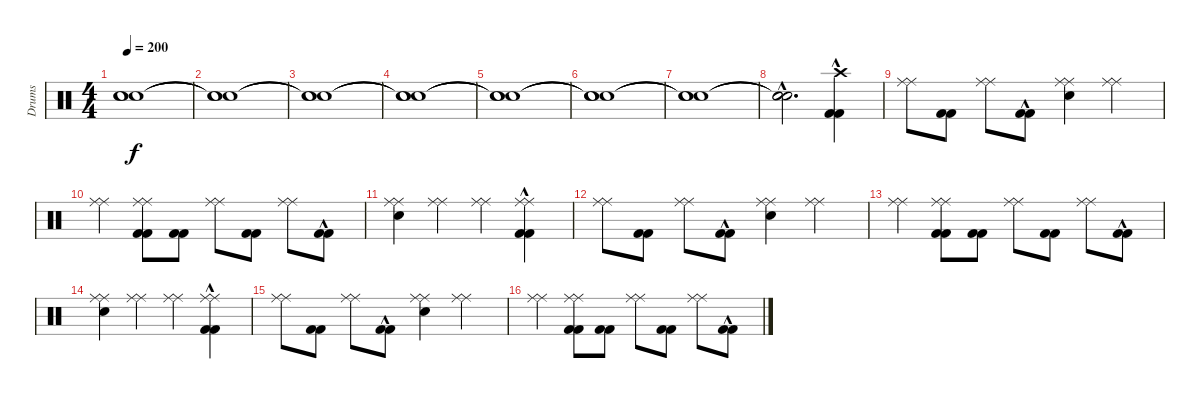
\track ("Drums" "Drums") {instrument percussion}
\staff {score}
\articulation defaults
\ts (4 4)
\tempo 200
\clef neutral
\ks c
("Snare (hit)"{t} "Snare (hit)"{t} "Snare (hit)"{t}).1{dy f} |
("Snare (hit)"{t} "Snare (hit)"{t} "Snare (hit)"{t}).1 |
("Snare (hit)"{t} "Snare (hit)"{t} "Snare (hit)"{t}).1 |
("Snare (hit)"{t} "Snare (hit)"{t} "Snare (hit)"{t}).1 |
("Snare (hit)"{t} "Snare (hit)"{t} "Snare (hit)"{t}).1 |
("Snare (hit)"{t} "Snare (hit)"{t} "Snare (hit)"{t}).1 |
("Snare (hit)"{t} "Snare (hit)"{t} "Snare (hit)"{t}).1 |
("Snare (hit)"{hac t} "Snare (hit)"{hac t} "Snare (hit)"{hac t}).2{d} ("Kick (hit) 2"{hac} "Kick (hit) 2"{hac} "Crash high (hit)").4 |
("Ride (middle)" "Ride (middle)").8 ("Kick (hit) 2" "Kick (hit) 2").8 ("Ride (middle)" "Ride (middle)").8 ("Kick (hit) 2"{hac} "Kick (hit) 2"{hac}).8 ("Electric Snare (hit)" "Ride (middle)" "Ride (middle)").4 ("Ride (middle)" "Ride (middle)").4 |
("Ride (middle)" "Ride (middle)").4 ("Kick (hit) 2" "Kick (hit) 2" "Ride (middle)" "Ride (middle)").8 ("Kick (hit) 2" "Kick (hit) 2").8 ("Ride (middle)" "Ride (middle)").8 ("Kick (hit) 2" "Kick (hit) 2").8 ("Ride (middle)" "Ride (middle)").8 ("Kick (hit) 2"{hac} "Kick (hit) 2"{hac}).8 |
("Electric Snare (hit)" "Ride (middle)" "Ride (middle)").4 ("Ride (middle)" "Ride (middle)").4 ("Ride (middle)" "Ride (middle)").4 ("Kick (hit) 2"{hac} "Kick (hit) 2"{hac} "Ride (middle)" "Ride (middle)").4 |
("Ride (middle)" "Ride (middle)").8 ("Kick (hit) 2" "Kick (hit) 2").8 ("Ride (middle)" "Ride (middle)").8 ("Kick (hit) 2"{hac} "Kick (hit) 2"{hac}).8 ("Electric Snare (hit)" "Ride (middle)" "Ride (middle)").4 ("Ride (middle)" "Ride (middle)").4 |
("Ride (middle)" "Ride (middle)").4 ("Kick (hit) 2" "Kick (hit) 2" "Ride (middle)" "Ride (middle)").8 ("Kick (hit) 2" "Kick (hit) 2").8 ("Ride (middle)" "Ride (middle)").8 ("Kick (hit) 2" "Kick (hit) 2").8 ("Ride (middle)" "Ride (middle)").8 ("Kick (hit) 2"{hac} "Kick (hit) 2"{hac}).8 |
("Electric Snare (hit)" "Ride (middle)" "Ride (middle)").4 ("Ride (middle)" "Ride (middle)").4 ("Ride (middle)" "Ride (middle)").4 ("Kick (hit) 2"{hac} "Kick (hit) 2"{hac} "Ride (middle)" "Ride (middle)").4 |
("Ride (middle)" "Ride (middle)").8 ("Kick (hit) 2" "Kick (hit) 2").8 ("Ride (middle)" "Ride (middle)").8 ("Kick (hit) 2"{hac} "Kick (hit) 2"{hac}).8 ("Electric Snare (hit)" "Ride (middle)" "Ride (middle)").4 ("Ride (middle)" "Ride (middle)").4 |
("Ride (middle)" "Ride (middle)").4 ("Kick (hit) 2" "Kick (hit) 2" "Ride (middle)" "Ride (middle)").8 ("Kick (hit) 2" "Kick (hit) 2").8 ("Ride (middle)" "Ride (middle)").8 ("Kick (hit) 2" "Kick (hit) 2").8 ("Ride (middle)" "Ride (middle)").8 ("Kick (hit) 2"{hac} "Kick (hit) 2"{hac}).8
